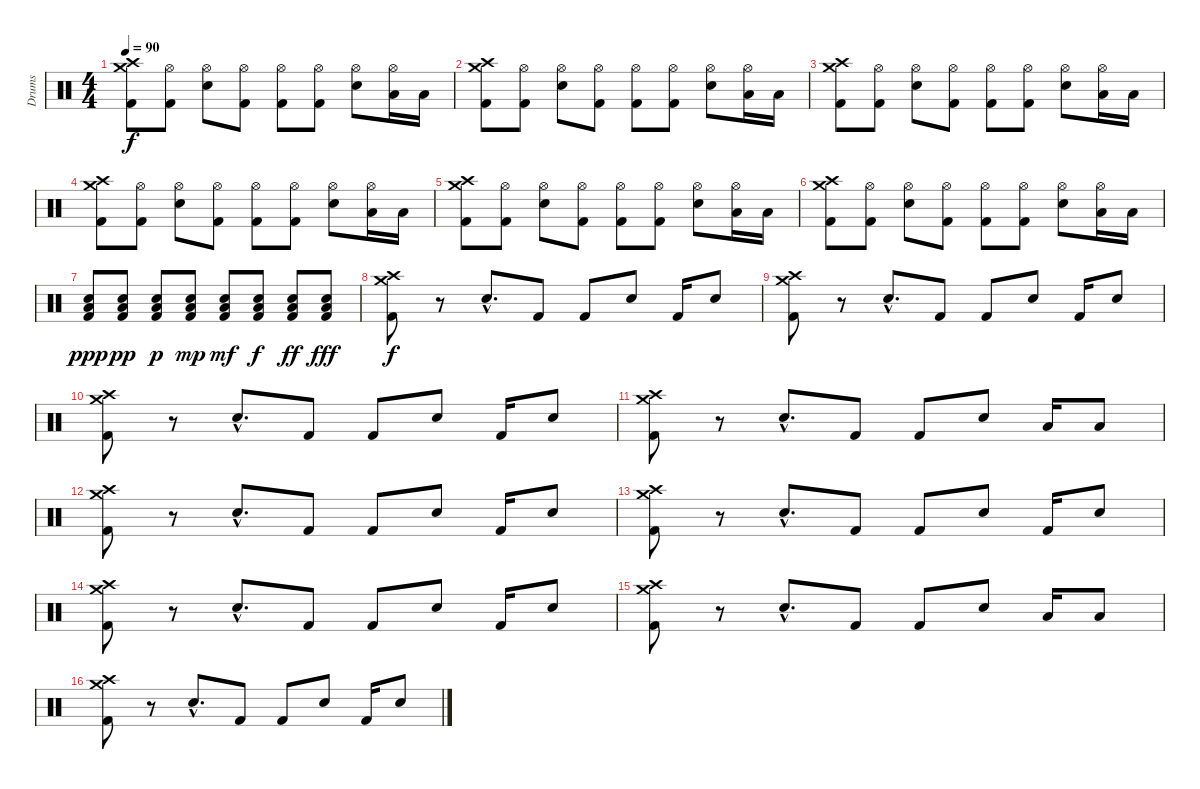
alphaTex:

\track ("Drums" "Drums") {instrument percussion}
\staff {score}
\articulation defaults
\ts (4 4)
\tempo 90
\clef neutral
\ks c
("Crash high (hit)" "Crash medium (hit)" "Kick (hit) 2").8{dy f} ("Hi-Hat (open)" "Kick (hit) 2").8 ("Hi-Hat (open)" "Snare (hit) 2").8 ("Hi-Hat (open)" "Kick (hit) 2").8 ("Hi-Hat (open)" "Kick (hit) 2").8 ("Hi-Hat (open)" "Kick (hit) 2").8 ("Hi-Hat (open)" "Snare (hit) 2").8 ("Hi-Hat (open)" "Low Tom (hit)").16 "Low Tom (hit)".16 |
("Crash high (hit)" "Crash medium (hit)" "Kick (hit) 2").8 ("Hi-Hat (open)" "Kick (hit) 2").8 ("Hi-Hat (open)" "Snare (hit) 2").8 ("Hi-Hat (open)" "Kick (hit) 2").8 ("Hi-Hat (open)" "Kick (hit) 2").8 ("Hi-Hat (open)" "Kick (hit) 2").8 ("Hi-Hat (open)" "Snare (hit) 2").8 ("Hi-Hat (open)" "Low Tom (hit)").16 "Low Tom (hit)".16 |
("Crash high (hit)" "Crash medium (hit)" "Kick (hit) 2").8 ("Hi-Hat (open)" "Kick (hit) 2").8 ("Hi-Hat (open)" "Snare (hit) 2").8 ("Hi-Hat (open)" "Kick (hit) 2").8 ("Hi-Hat (open)" "Kick (hit) 2").8 ("Hi-Hat (open)" "Kick (hit) 2").8 ("Hi-Hat (open)" "Snare (hit) 2").8 ("Hi-Hat (open)" "Low Tom (hit)").16 "Low Tom (hit)".16 |
("Crash high (hit)" "Crash medium (hit)" "Kick (hit) 2").8 ("Hi-Hat (open)" "Kick (hit) 2").8 ("Hi-Hat (open)" "Snare (hit) 2").8 ("Hi-Hat (open)" "Kick (hit) 2").8 ("Hi-Hat (open)" "Kick (hit) 2").8 ("Hi-Hat (open)" "Kick (hit) 2").8 ("Hi-Hat (open)" "Snare (hit) 2").8 ("Hi-Hat (open)" "Low Tom (hit)").16 "Low Tom (hit)".16 |
("Crash high (hit)" "Crash medium (hit)" "Kick (hit) 2").8 ("Hi-Hat (open)" "Kick (hit) 2").8 ("Hi-Hat (open)" "Snare (hit) 2").8 ("Hi-Hat (open)" "Kick (hit) 2").8 ("Hi-Hat (open)" "Kick (hit) 2").8 ("Hi-Hat (open)" "Kick (hit) 2").8 ("Hi-Hat (open)" "Snare (hit) 2").8 ("Hi-Hat (open)" "Low Tom (hit)").16 "Low Tom (hit)".16 |
("Crash high (hit)" "Crash medium (hit)" "Kick (hit) 2").8 ("Hi-Hat (open)" "Kick (hit) 2").8 ("Hi-Hat (open)" "Snare (hit) 2").8 ("Hi-Hat (open)" "Kick (hit) 2").8 ("Hi-Hat (open)" "Kick (hit) 2").8 ("Hi-Hat (open)" "Kick (hit) 2").8 ("Hi-Hat (open)" "Snare (hit) 2").8 ("Hi-Hat (open)" "Low Tom (hit)").16 "Low Tom (hit)".16 |
("Kick (hit) 2" "Snare (hit) 2" "Low Floor Tom (hit)").8{dy ppp} ("Kick (hit) 2" "Snare (hit) 2" "Low Floor Tom (hit)").8{dy pp} ("Kick (hit) 2" "Snare (hit) 2" "Low Floor Tom (hit)").8{dy p} ("Kick (hit) 2" "Snare (hit) 2" "Low Floor Tom (hit)").8{dy mp} ("Kick (hit) 2" "Snare (hit) 2" "Low Floor Tom (hit)").8{dy mf} ("Kick (hit) 2" "Snare (hit) 2" "Low Floor Tom (hit)").8{dy f} ("Kick (hit) 2" "Snare (hit) 2" "Low Floor Tom (hit)").8{dy ff} ("Kick (hit) 2" "Snare (hit) 2" "Low Floor Tom (hit)").8{dy fff} |
("Crash high (hit)" "Crash medium (hit)" "Kick (hit) 2").8{dy f} r.8 "Snare (hit) 2"{hac}.8{d} "Kick (hit) 2".8 "Kick (hit) 2".8 "Snare (hit) 2".8 "Kick (hit) 2".16 "Snare (hit) 2".8 |
("Crash high (hit)" "Crash medium (hit)" "Kick (hit) 2").8 r.8 "Snare (hit) 2"{hac}.8{d} "Kick (hit) 2".8 "Kick (hit) 2".8 "Snare (hit) 2".8 "Kick (hit) 2".16 "Snare (hit) 2".8 |
("Crash high (hit)" "Crash medium (hit)" "Kick (hit) 2").8 r.8 "Snare (hit) 2"{hac}.8{d} "Kick (hit) 2".8 "Kick (hit) 2".8 "Snare (hit) 2".8 "Kick (hit) 2".16 "Snare (hit) 2".8 |
("Crash high (hit)" "Crash medium (hit)" "Kick (hit) 2").8 r.8 "Snare (hit) 2"{hac}.8{d} "Kick (hit) 2".8 "Kick (hit) 2".8 "Snare (hit) 2".8 "Low Tom (hit)".16 "Low Tom (hit)".8 |
("Crash high (hit)" "Crash medium (hit)" "Kick (hit) 2").8 r.8 "Snare (hit) 2"{hac}.8{d} "Kick (hit) 2".8 "Kick (hit) 2".8 "Snare (hit) 2".8 "Kick (hit) 2".16 "Snare (hit) 2".8 |
("Crash high (hit)" "Crash medium (hit)" "Kick (hit) 2").8 r.8 "Snare (hit) 2"{hac}.8{d} "Kick (hit) 2".8 "Kick (hit) 2".8 "Snare (hit) 2".8 "Kick (hit) 2".16 "Snare (hit) 2".8 |
("Crash high (hit)" "Crash medium (hit)" "Kick (hit) 2").8 r.8 "Snare (hit) 2"{hac}.8{d} "Kick (hit) 2".8 "Kick (hit) 2".8 "Snare (hit) 2".8 "Kick (hit) 2".16 "Snare (hit) 2".8 |
("Crash high (hit)" "Crash medium (hit)" "Kick (hit) 2").8 r.8 "Snare (hit) 2"{hac}.8{d} "Kick (hit) 2".8 "Kick (hit) 2".8 "Snare (hit) 2".8 "Low Tom (hit)".16 "Low Tom (hit)".8 |
("Crash high (hit)" "Crash medium (hit)" "Kick (hit) 2").8 r.8 "Snare (hit) 2"{hac}.8{d} "Kick (hit) 2".8 "Kick (hit) 2".8 "Snare (hit) 2".8 "Kick (hit) 2".16 "Snare (hit) 2".8
